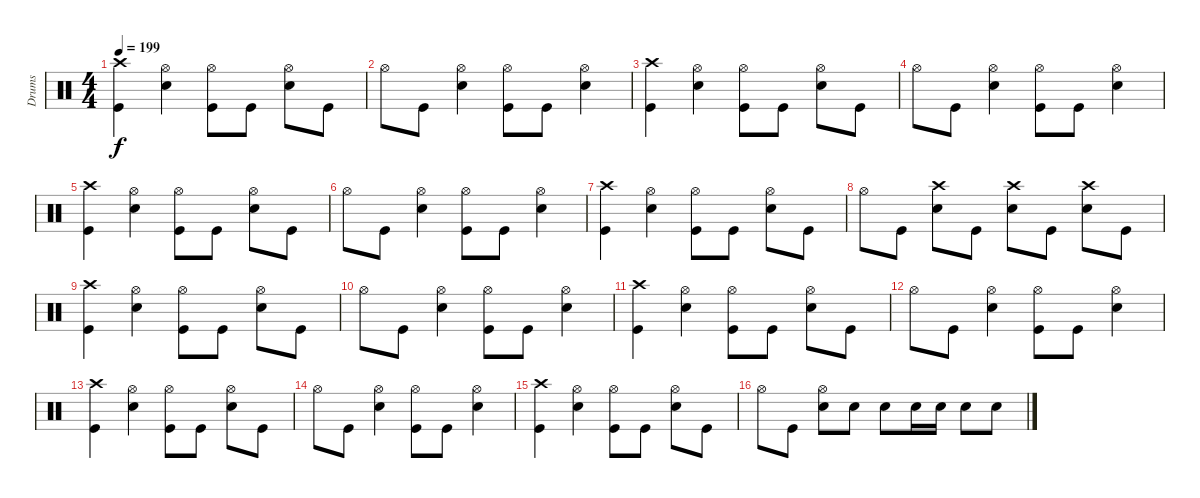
\track ("Drums" "Drums") {instrument percussion}
\staff {score}
\articulation defaults
\ts (4 4)
\tempo 199
\clef neutral
\ks c
("Kick (hit)" "Crash high (hit)").4{dy f} ("Hi-Hat (open)" "Snare (hit) 2").4 ("Hi-Hat (open)" "Kick (hit)").8 "Kick (hit)".8 ("Hi-Hat (open)" "Snare (hit) 2").8 "Kick (hit)".8 |
"Hi-Hat (open)".8 "Kick (hit)".8 ("Hi-Hat (open)" "Snare (hit) 2").4 ("Hi-Hat (open)" "Kick (hit)").8 "Kick (hit)".8 ("Hi-Hat (open)" "Snare (hit) 2").4 |
("Kick (hit)" "Crash high (hit)").4 ("Hi-Hat (open)" "Snare (hit) 2").4 ("Hi-Hat (open)" "Kick (hit)").8 "Kick (hit)".8 ("Hi-Hat (open)" "Snare (hit) 2").8 "Kick (hit)".8 |
"Hi-Hat (open)".8 "Kick (hit)".8 ("Hi-Hat (open)" "Snare (hit) 2").4 ("Hi-Hat (open)" "Kick (hit)").8 "Kick (hit)".8 ("Hi-Hat (open)" "Snare (hit) 2").4 |
("Kick (hit)" "Crash high (hit)").4 ("Hi-Hat (open)" "Snare (hit) 2").4 ("Hi-Hat (open)" "Kick (hit)").8 "Kick (hit)".8 ("Hi-Hat (open)" "Snare (hit) 2").8 "Kick (hit)".8 |
"Hi-Hat (open)".8 "Kick (hit)".8 ("Hi-Hat (open)" "Snare (hit) 2").4 ("Hi-Hat (open)" "Kick (hit)").8 "Kick (hit)".8 ("Hi-Hat (open)" "Snare (hit) 2").4 |
("Kick (hit)" "Crash high (hit)").4 ("Hi-Hat (open)" "Snare (hit) 2").4 ("Hi-Hat (open)" "Kick (hit)").8 "Kick (hit)".8 ("Hi-Hat (open)" "Snare (hit) 2").8 "Kick (hit)".8 |
"Hi-Hat (open)".8 "Kick (hit)".8 ("Snare (hit) 2" "Crash high (hit)").8 "Kick (hit)".8 ("Snare (hit) 2" "Crash high (hit)").8 "Kick (hit)".8 ("Snare (hit) 2" "Crash high (hit)").8 "Kick (hit)".8 |
("Kick (hit)" "Crash high (hit)").4 ("Hi-Hat (open)" "Snare (hit) 2").4 ("Hi-Hat (open)" "Kick (hit)").8 "Kick (hit)".8 ("Hi-Hat (open)" "Snare (hit) 2").8 "Kick (hit)".8 |
"Hi-Hat (open)".8 "Kick (hit)".8 ("Hi-Hat (open)" "Snare (hit) 2").4 ("Hi-Hat (open)" "Kick (hit)").8 "Kick (hit)".8 ("Hi-Hat (open)" "Snare (hit) 2").4 |
("Kick (hit)" "Crash high (hit)").4 ("Hi-Hat (open)" "Snare (hit) 2").4 ("Hi-Hat (open)" "Kick (hit)").8 "Kick (hit)".8 ("Hi-Hat (open)" "Snare (hit) 2").8 "Kick (hit)".8 |
"Hi-Hat (open)".8 "Kick (hit)".8 ("Hi-Hat (open)" "Snare (hit) 2").4 ("Hi-Hat (open)" "Kick (hit)").8 "Kick (hit)".8 ("Hi-Hat (open)" "Snare (hit) 2").4 |
("Kick (hit)" "Crash high (hit)").4 ("Hi-Hat (open)" "Snare (hit) 2").4 ("Hi-Hat (open)" "Kick (hit)").8 "Kick (hit)".8 ("Hi-Hat (open)" "Snare (hit) 2").8 "Kick (hit)".8 |
"Hi-Hat (open)".8 "Kick (hit)".8 ("Hi-Hat (open)" "Snare (hit) 2").4 ("Hi-Hat (open)" "Kick (hit)").8 "Kick (hit)".8 ("Hi-Hat (open)" "Snare (hit) 2").4 |
("Kick (hit)" "Crash high (hit)").4 ("Hi-Hat (open)" "Snare (hit) 2").4 ("Hi-Hat (open)" "Kick (hit)").8 "Kick (hit)".8 ("Hi-Hat (open)" "Snare (hit) 2").8 "Kick (hit)".8 |
"Hi-Hat (open)".8 "Kick (hit)".8 ("Hi-Hat (open)" "Snare (hit) 2").8 "Snare (hit) 2".8 "Snare (hit) 2".8 "Snare (hit) 2".16 "Snare (hit) 2".16 "Snare (hit) 2".8 "Snare (hit) 2".8
